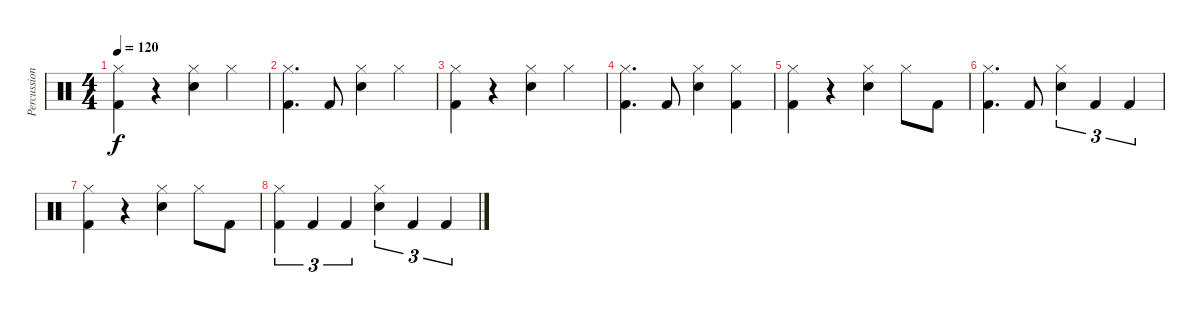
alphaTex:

\track ("Percussions" "Percussion") {instrument percussion}
\staff {score}
\articulation defaults
\ts (4 4)
\tempo 120
\clef neutral
\ks c
("Hi-Hat (closed)" "Kick (hit) 2").4{dy f} r.4 ("Hi-Hat (closed)" "Snare (hit) 2").4 "Hi-Hat (closed)".4 |
("Hi-Hat (closed)" "Kick (hit) 2").4{d} "Kick (hit) 2".8 ("Hi-Hat (closed)" "Snare (hit) 2").4 "Hi-Hat (closed)".4 |
("Hi-Hat (closed)" "Kick (hit) 2").4 r.4 ("Hi-Hat (closed)" "Snare (hit) 2").4 "Hi-Hat (closed)".4 |
("Hi-Hat (closed)" "Kick (hit) 2").4{d} "Kick (hit) 2".8 ("Hi-Hat (closed)" "Snare (hit) 2").4 ("Hi-Hat (closed)" "Kick (hit) 2").4 |
("Hi-Hat (closed)" "Kick (hit) 2").4 r.4 ("Hi-Hat (closed)" "Snare (hit) 2").4 "Hi-Hat (closed)".8 "Kick (hit) 2".8 |
("Hi-Hat (closed)" "Kick (hit) 2").4{d} "Kick (hit) 2".8 ("Hi-Hat (closed)" "Snare (hit) 2").4{tu (3 2)} "Kick (hit) 2".4{tu (3 2)} "Kick (hit) 2".4{tu (3 2)} |
("Hi-Hat (closed)" "Kick (hit) 2").4 r.4 ("Hi-Hat (closed)" "Snare (hit) 2").4 "Hi-Hat (closed)".8 "Kick (hit) 2".8 |
("Hi-Hat (closed)" "Kick (hit) 2").4{tu (3 2)} "Kick (hit) 2".4{tu (3 2)} "Kick (hit) 2".4{tu (3 2)} ("Hi-Hat (closed)" "Snare (hit) 2").4{tu (3 2)} "Kick (hit) 2".4{tu (3 2)} "Kick (hit) 2".4{tu (3 2)}
